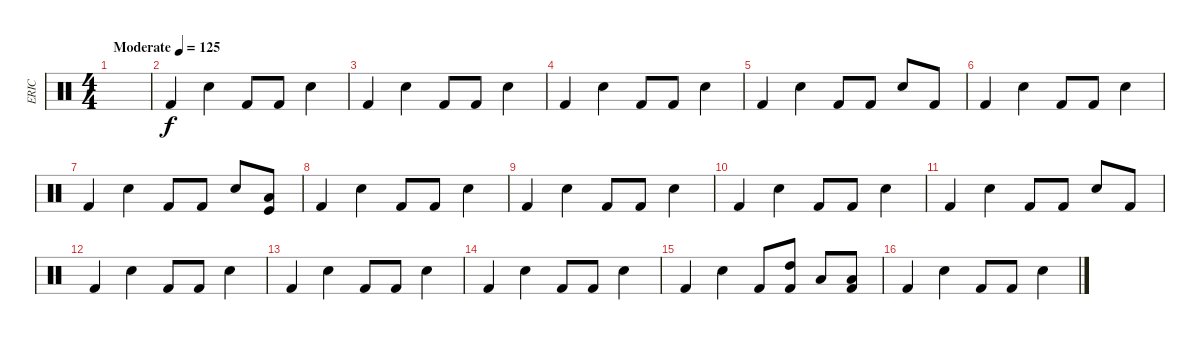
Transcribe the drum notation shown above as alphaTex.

\track ("ERIC" "ERIC") {instrument percussion}
\staff {score}
\articulation defaults
\ts (4 4)
\tempo (125 "Moderate")
\clef neutral
\ks c
|
"Kick (hit) 2".4 "Electric Snare (hit)".4 "Kick (hit) 2".8 "Kick (hit) 2".8 "Electric Snare (hit)".4 |
"Kick (hit) 2".4 "Electric Snare (hit)".4 "Kick (hit) 2".8 "Kick (hit) 2".8 "Electric Snare (hit)".4 |
"Kick (hit) 2".4 "Electric Snare (hit)".4 "Kick (hit) 2".8 "Kick (hit) 2".8 "Electric Snare (hit)".4 |
"Kick (hit) 2".4 "Electric Snare (hit)".4 "Kick (hit) 2".8 "Kick (hit) 2".8 "Electric Snare (hit)".8 "Kick (hit) 2".8 |
"Kick (hit) 2".4 "Electric Snare (hit)".4 "Kick (hit) 2".8 "Kick (hit) 2".8 "Electric Snare (hit)".4 |
"Kick (hit) 2".4 "Electric Snare (hit)".4 "Kick (hit) 2".8 "Kick (hit) 2".8 "Electric Snare (hit)".8 ("Low Floor Tom (hit)" "Kick (hit)").8 |
"Kick (hit) 2".4 "Electric Snare (hit)".4 "Kick (hit) 2".8 "Kick (hit) 2".8 "Electric Snare (hit)".4 |
"Kick (hit) 2".4 "Electric Snare (hit)".4 "Kick (hit) 2".8 "Kick (hit) 2".8 "Electric Snare (hit)".4 |
"Kick (hit) 2".4 "Electric Snare (hit)".4 "Kick (hit) 2".8 "Kick (hit) 2".8 "Electric Snare (hit)".4 |
"Kick (hit) 2".4 "Electric Snare (hit)".4 "Kick (hit) 2".8 "Kick (hit) 2".8 "Electric Snare (hit)".8 "Kick (hit) 2".8 |
"Kick (hit) 2".4 "Electric Snare (hit)".4 "Kick (hit) 2".8 "Kick (hit) 2".8 "Electric Snare (hit)".4 |
"Kick (hit) 2".4 "Electric Snare (hit)".4 "Kick (hit) 2".8 "Kick (hit) 2".8 "Electric Snare (hit)".4 |
"Kick (hit) 2".4 "Electric Snare (hit)".4 "Kick (hit) 2".8 "Kick (hit) 2".8 "Electric Snare (hit)".4 |
"Kick (hit) 2".4 "Electric Snare (hit)".4 "Kick (hit) 2".8 ("High Tom (hit)" "Kick (hit) 2").8 "Low Tom (hit)".8 ("Low Floor Tom (hit)" "Kick (hit) 2").8 |
"Kick (hit) 2".4 "Electric Snare (hit)".4 "Kick (hit) 2".8 "Kick (hit) 2".8 "Electric Snare (hit)".4
